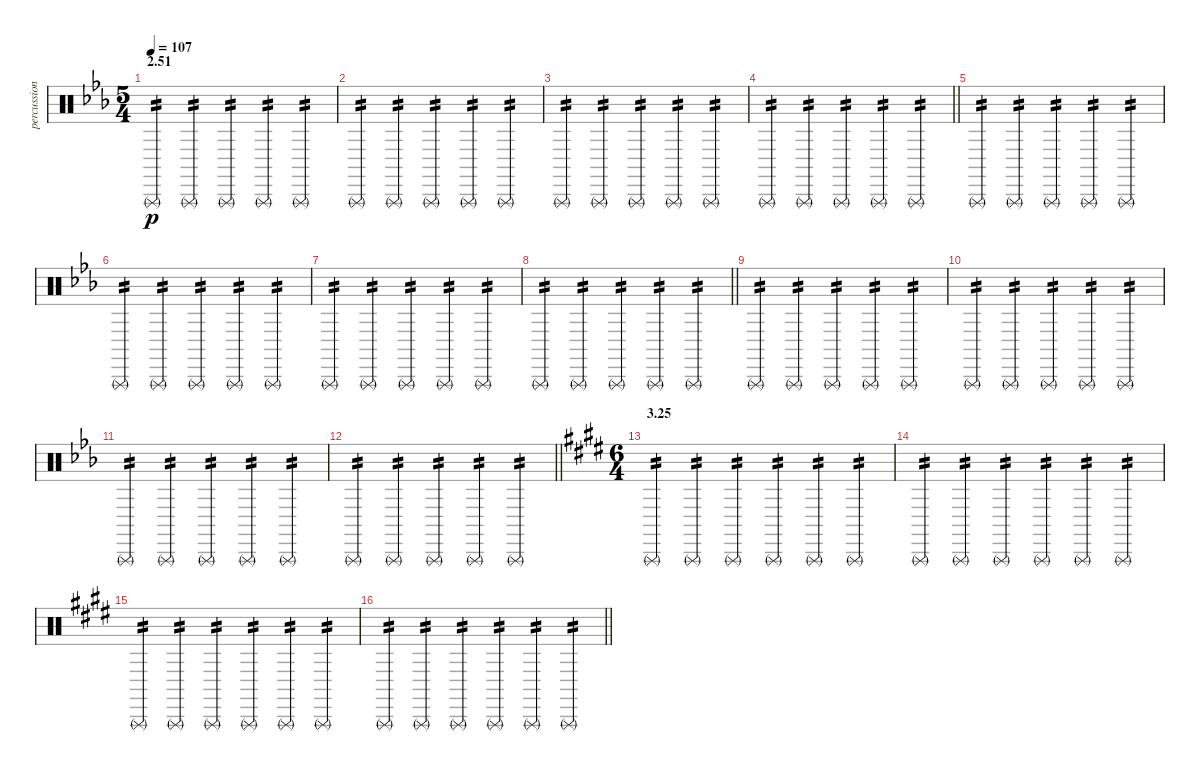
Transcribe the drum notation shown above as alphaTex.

\track ("percussion" "percussion") {instrument percussion}
\staff {score}
\articulation defaults
\ts (5 4)
\section ("" "2.51")
\tempo 107
\clef neutral
\ks eb "Triangle (rnute)".4{tp 2 dy p} "Triangle (rnute)".4{tp 2} "Triangle (rnute)".4{tp 2} "Triangle (rnute)".4{tp 2} "Triangle (rnute)".4{tp 2}
|
"Triangle (rnute)".4{tp 2} "Triangle (rnute)".4{tp 2} "Triangle (rnute)".4{tp 2} "Triangle (rnute)".4{tp 2} "Triangle (rnute)".4{tp 2} |
"Triangle (rnute)".4{tp 2} "Triangle (rnute)".4{tp 2} "Triangle (rnute)".4{tp 2} "Triangle (rnute)".4{tp 2} "Triangle (rnute)".4{tp 2} |
\barLineRight lightlight "Triangle (rnute)".4{tp 2} "Triangle (rnute)".4{tp 2} "Triangle (rnute)".4{tp 2} "Triangle (rnute)".4{tp 2} "Triangle (rnute)".4{tp 2}
|
"Triangle (rnute)".4{tp 2} "Triangle (rnute)".4{tp 2} "Triangle (rnute)".4{tp 2} "Triangle (rnute)".4{tp 2} "Triangle (rnute)".4{tp 2} |
"Triangle (rnute)".4{tp 2} "Triangle (rnute)".4{tp 2} "Triangle (rnute)".4{tp 2} "Triangle (rnute)".4{tp 2} "Triangle (rnute)".4{tp 2} |
"Triangle (rnute)".4{tp 2} "Triangle (rnute)".4{tp 2} "Triangle (rnute)".4{tp 2} "Triangle (rnute)".4{tp 2} "Triangle (rnute)".4{tp 2} |
\barLineRight lightlight "Triangle (rnute)".4{tp 2} "Triangle (rnute)".4{tp 2} "Triangle (rnute)".4{tp 2} "Triangle (rnute)".4{tp 2} "Triangle (rnute)".4{tp 2}
|
"Triangle (rnute)".4{tp 2} "Triangle (rnute)".4{tp 2} "Triangle (rnute)".4{tp 2} "Triangle (rnute)".4{tp 2} "Triangle (rnute)".4{tp 2} |
"Triangle (rnute)".4{tp 2} "Triangle (rnute)".4{tp 2} "Triangle (rnute)".4{tp 2} "Triangle (rnute)".4{tp 2} "Triangle (rnute)".4{tp 2} |
"Triangle (rnute)".4{tp 2} "Triangle (rnute)".4{tp 2} "Triangle (rnute)".4{tp 2} "Triangle (rnute)".4{tp 2} "Triangle (rnute)".4{tp 2} |
\barLineRight lightlight "Triangle (rnute)".4{tp 2} "Triangle (rnute)".4{tp 2} "Triangle (rnute)".4{tp 2} "Triangle (rnute)".4{tp 2} "Triangle (rnute)".4{tp 2}
|
\ts (6 4)
\section ("" "3.25")
\ks e "Triangle (rnute)".4{tp 2} "Triangle (rnute)".4{tp 2} "Triangle (rnute)".4{tp 2} "Triangle (rnute)".4{tp 2} "Triangle (rnute)".4{tp 2} "Triangle (rnute)".4{tp 2}
|
"Triangle (rnute)".4{tp 2} "Triangle (rnute)".4{tp 2} "Triangle (rnute)".4{tp 2} "Triangle (rnute)".4{tp 2} "Triangle (rnute)".4{tp 2} "Triangle (rnute)".4{tp 2} |
"Triangle (rnute)".4{tp 2} "Triangle (rnute)".4{tp 2} "Triangle (rnute)".4{tp 2} "Triangle (rnute)".4{tp 2} "Triangle (rnute)".4{tp 2} "Triangle (rnute)".4{tp 2} |
\barLineRight lightlight "Triangle (rnute)".4{tp 2} "Triangle (rnute)".4{tp 2} "Triangle (rnute)".4{tp 2} "Triangle (rnute)".4{tp 2} "Triangle (rnute)".4{tp 2} "Triangle (rnute)".4{tp 2}
